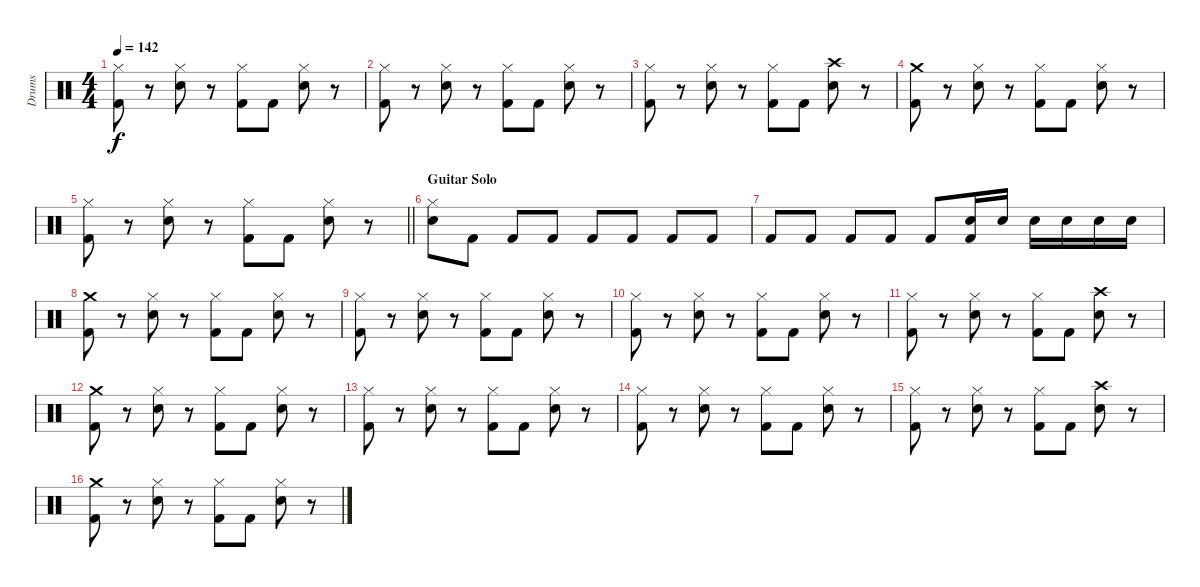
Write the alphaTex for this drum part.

\track ("Drums" "Drums") {instrument percussion}
\staff {score}
\articulation defaults
\ts (4 4)
\tempo 142
\clef neutral
\ks c
("Hi-Hat (closed)" "Kick (hit) 2").8{dy f} r.8 ("Hi-Hat (closed)" "Electric Snare (hit)").8 r.8 ("Hi-Hat (closed)" "Kick (hit) 2").8 "Kick (hit) 2".8 ("Hi-Hat (closed)" "Electric Snare (hit)").8 r.8 |
("Hi-Hat (closed)" "Kick (hit) 2").8 r.8 ("Hi-Hat (closed)" "Electric Snare (hit)").8 r.8 ("Hi-Hat (closed)" "Kick (hit) 2").8 "Kick (hit) 2".8 ("Hi-Hat (closed)" "Electric Snare (hit)").8 r.8 |
("Hi-Hat (closed)" "Kick (hit) 2").8 r.8 ("Hi-Hat (closed)" "Electric Snare (hit)").8 r.8 ("Hi-Hat (closed)" "Kick (hit) 2").8 "Kick (hit) 2".8 ("Crash high (hit)" "Electric Snare (hit)").8 r.8 |
("Crash medium (hit)" "Kick (hit) 2").8 r.8 ("Hi-Hat (closed)" "Electric Snare (hit)").8 r.8 ("Hi-Hat (closed)" "Kick (hit) 2").8 "Kick (hit) 2".8 ("Hi-Hat (closed)" "Electric Snare (hit)").8 r.8 |
\barLineRight lightlight
("Hi-Hat (closed)" "Kick (hit) 2").8 r.8 ("Hi-Hat (closed)" "Electric Snare (hit)").8 r.8 ("Hi-Hat (closed)" "Kick (hit) 2").8 "Kick (hit) 2".8 ("Hi-Hat (closed)" "Electric Snare (hit)").8 r.8 |
\section ("" "Guitar Solo")
("Hi-Hat (closed)" "Electric Snare (hit)").8 "Kick (hit) 2".8 "Kick (hit) 2".8 "Kick (hit) 2".8 "Kick (hit) 2".8 "Kick (hit) 2".8 "Kick (hit) 2".8 "Kick (hit) 2".8 |
"Kick (hit) 2".8 "Kick (hit) 2".8 "Kick (hit) 2".8 "Kick (hit) 2".8 "Kick (hit) 2".8 ("Electric Snare (hit)" "Kick (hit) 2").16 "Electric Snare (hit)".16 "Electric Snare (hit)".16 "Electric Snare (hit)".16 "Electric Snare (hit)".16 "Electric Snare (hit)".16 |
("Crash medium (hit)" "Kick (hit) 2").8 r.8 ("Hi-Hat (closed)" "Electric Snare (hit)").8 r.8 ("Hi-Hat (closed)" "Kick (hit) 2").8 "Kick (hit) 2".8 ("Hi-Hat (closed)" "Electric Snare (hit)").8 r.8 |
("Hi-Hat (closed)" "Kick (hit) 2").8 r.8 ("Hi-Hat (closed)" "Electric Snare (hit)").8 r.8 ("Hi-Hat (closed)" "Kick (hit) 2").8 "Kick (hit) 2".8 ("Hi-Hat (closed)" "Electric Snare (hit)").8 r.8 |
("Hi-Hat (closed)" "Kick (hit) 2").8 r.8 ("Hi-Hat (closed)" "Electric Snare (hit)").8 r.8 ("Hi-Hat (closed)" "Kick (hit) 2").8 "Kick (hit) 2".8 ("Hi-Hat (closed)" "Electric Snare (hit)").8 r.8 |
("Hi-Hat (closed)" "Kick (hit) 2").8 r.8 ("Hi-Hat (closed)" "Electric Snare (hit)").8 r.8 ("Hi-Hat (closed)" "Kick (hit) 2").8 "Kick (hit) 2".8 ("Crash high (hit)" "Electric Snare (hit)").8 r.8 |
("Crash medium (hit)" "Kick (hit) 2").8 r.8 ("Hi-Hat (closed)" "Electric Snare (hit)").8 r.8 ("Hi-Hat (closed)" "Kick (hit) 2").8 "Kick (hit) 2".8 ("Hi-Hat (closed)" "Electric Snare (hit)").8 r.8 |
("Hi-Hat (closed)" "Kick (hit) 2").8 r.8 ("Hi-Hat (closed)" "Electric Snare (hit)").8 r.8 ("Hi-Hat (closed)" "Kick (hit) 2").8 "Kick (hit) 2".8 ("Hi-Hat (closed)" "Electric Snare (hit)").8 r.8 |
("Hi-Hat (closed)" "Kick (hit) 2").8 r.8 ("Hi-Hat (closed)" "Electric Snare (hit)").8 r.8 ("Hi-Hat (closed)" "Kick (hit) 2").8 "Kick (hit) 2".8 ("Hi-Hat (closed)" "Electric Snare (hit)").8 r.8 |
("Hi-Hat (closed)" "Kick (hit) 2").8 r.8 ("Hi-Hat (closed)" "Electric Snare (hit)").8 r.8 ("Hi-Hat (closed)" "Kick (hit) 2").8 "Kick (hit) 2".8 ("Crash high (hit)" "Electric Snare (hit)").8 r.8 |
("Crash medium (hit)" "Kick (hit) 2").8 r.8 ("Hi-Hat (closed)" "Electric Snare (hit)").8 r.8 ("Hi-Hat (closed)" "Kick (hit) 2").8 "Kick (hit) 2".8 ("Hi-Hat (closed)" "Electric Snare (hit)").8 r.8
